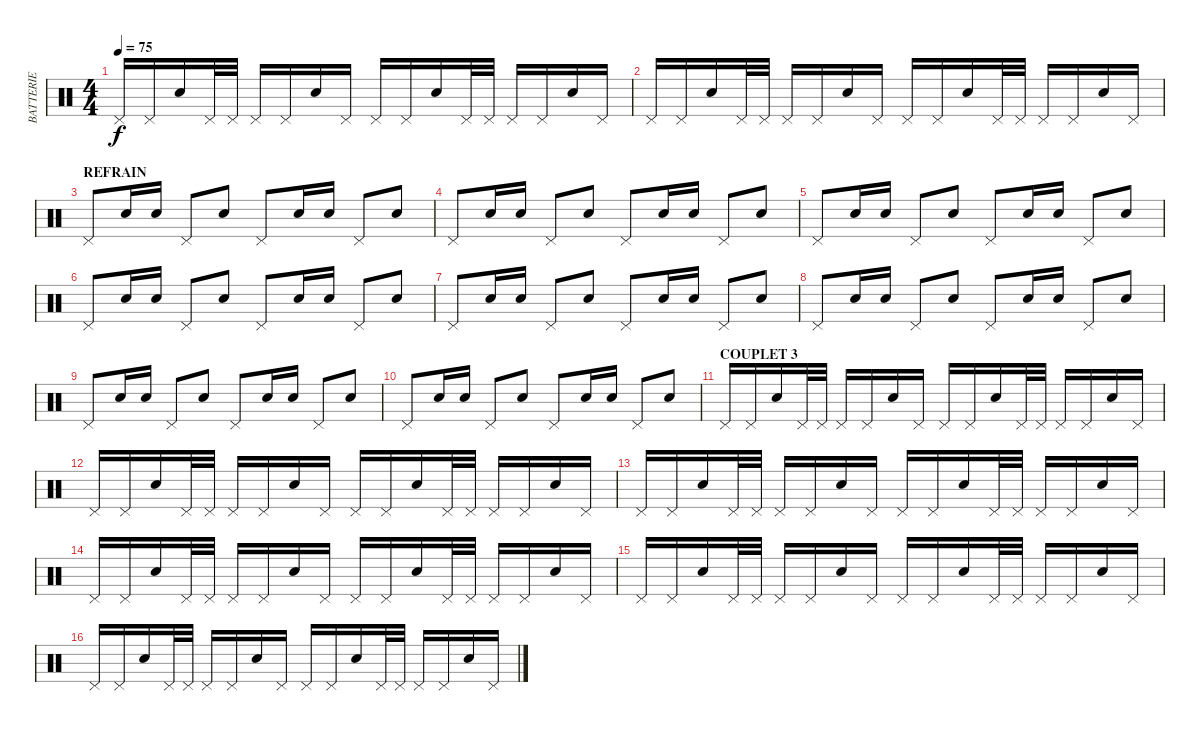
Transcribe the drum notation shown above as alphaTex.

\track ("BATTERIE" "BATTERIE") {instrument percussion}
\staff {score}
\articulation defaults
\ts (4 4)
\tempo 75
\clef neutral
\ks c "Pedal Hi-Hat (hit)".16{dy f} "Pedal Hi-Hat (hit)".16 "Electric Snare (hit)".16 "Pedal Hi-Hat (hit)".32 "Pedal Hi-Hat (hit)".32 "Pedal Hi-Hat (hit)".16 "Pedal Hi-Hat (hit)".16 "Electric Snare (hit)".16 "Pedal Hi-Hat (hit)".16 "Pedal Hi-Hat (hit)".16 "Pedal Hi-Hat (hit)".16 "Electric Snare (hit)".16 "Pedal Hi-Hat (hit)".32 "Pedal Hi-Hat (hit)".32 "Pedal Hi-Hat (hit)".16 "Pedal Hi-Hat (hit)".16 "Electric Snare (hit)".16 "Pedal Hi-Hat (hit)".16
|
"Pedal Hi-Hat (hit)".16 "Pedal Hi-Hat (hit)".16 "Electric Snare (hit)".16 "Pedal Hi-Hat (hit)".32 "Pedal Hi-Hat (hit)".32 "Pedal Hi-Hat (hit)".16 "Pedal Hi-Hat (hit)".16 "Electric Snare (hit)".16 "Pedal Hi-Hat (hit)".16 "Pedal Hi-Hat (hit)".16 "Pedal Hi-Hat (hit)".16 "Electric Snare (hit)".16 "Pedal Hi-Hat (hit)".32 "Pedal Hi-Hat (hit)".32 "Pedal Hi-Hat (hit)".16 "Pedal Hi-Hat (hit)".16 "Electric Snare (hit)".16 "Pedal Hi-Hat (hit)".16 |
\section ("" "REFRAIN")
"Pedal Hi-Hat (hit)".8 "Electric Snare (hit)".16 "Electric Snare (hit)".16 "Pedal Hi-Hat (hit)".8 "Electric Snare (hit)".8 "Pedal Hi-Hat (hit)".8 "Electric Snare (hit)".16 "Electric Snare (hit)".16 "Pedal Hi-Hat (hit)".8 "Electric Snare (hit)".8 |
"Pedal Hi-Hat (hit)".8 "Electric Snare (hit)".16 "Electric Snare (hit)".16 "Pedal Hi-Hat (hit)".8 "Electric Snare (hit)".8 "Pedal Hi-Hat (hit)".8 "Electric Snare (hit)".16 "Electric Snare (hit)".16 "Pedal Hi-Hat (hit)".8 "Electric Snare (hit)".8 |
"Pedal Hi-Hat (hit)".8 "Electric Snare (hit)".16 "Electric Snare (hit)".16 "Pedal Hi-Hat (hit)".8 "Electric Snare (hit)".8 "Pedal Hi-Hat (hit)".8 "Electric Snare (hit)".16 "Electric Snare (hit)".16 "Pedal Hi-Hat (hit)".8 "Electric Snare (hit)".8 |
"Pedal Hi-Hat (hit)".8 "Electric Snare (hit)".16 "Electric Snare (hit)".16 "Pedal Hi-Hat (hit)".8 "Electric Snare (hit)".8 "Pedal Hi-Hat (hit)".8 "Electric Snare (hit)".16 "Electric Snare (hit)".16 "Pedal Hi-Hat (hit)".8 "Electric Snare (hit)".8 |
"Pedal Hi-Hat (hit)".8 "Electric Snare (hit)".16 "Electric Snare (hit)".16 "Pedal Hi-Hat (hit)".8 "Electric Snare (hit)".8 "Pedal Hi-Hat (hit)".8 "Electric Snare (hit)".16 "Electric Snare (hit)".16 "Pedal Hi-Hat (hit)".8 "Electric Snare (hit)".8 |
"Pedal Hi-Hat (hit)".8 "Electric Snare (hit)".16 "Electric Snare (hit)".16 "Pedal Hi-Hat (hit)".8 "Electric Snare (hit)".8 "Pedal Hi-Hat (hit)".8 "Electric Snare (hit)".16 "Electric Snare (hit)".16 "Pedal Hi-Hat (hit)".8 "Electric Snare (hit)".8 |
"Pedal Hi-Hat (hit)".8 "Electric Snare (hit)".16 "Electric Snare (hit)".16 "Pedal Hi-Hat (hit)".8 "Electric Snare (hit)".8 "Pedal Hi-Hat (hit)".8 "Electric Snare (hit)".16 "Electric Snare (hit)".16 "Pedal Hi-Hat (hit)".8 "Electric Snare (hit)".8 |
"Pedal Hi-Hat (hit)".8 "Electric Snare (hit)".16 "Electric Snare (hit)".16 "Pedal Hi-Hat (hit)".8 "Electric Snare (hit)".8 "Pedal Hi-Hat (hit)".8 "Electric Snare (hit)".16 "Electric Snare (hit)".16 "Pedal Hi-Hat (hit)".8 "Electric Snare (hit)".8 |
\section ("" "COUPLET 3")
"Pedal Hi-Hat (hit)".16 "Pedal Hi-Hat (hit)".16 "Electric Snare (hit)".16 "Pedal Hi-Hat (hit)".32 "Pedal Hi-Hat (hit)".32 "Pedal Hi-Hat (hit)".16 "Pedal Hi-Hat (hit)".16 "Electric Snare (hit)".16 "Pedal Hi-Hat (hit)".16 "Pedal Hi-Hat (hit)".16 "Pedal Hi-Hat (hit)".16 "Electric Snare (hit)".16 "Pedal Hi-Hat (hit)".32 "Pedal Hi-Hat (hit)".32 "Pedal Hi-Hat (hit)".16 "Pedal Hi-Hat (hit)".16 "Electric Snare (hit)".16 "Pedal Hi-Hat (hit)".16 |
"Pedal Hi-Hat (hit)".16 "Pedal Hi-Hat (hit)".16 "Electric Snare (hit)".16 "Pedal Hi-Hat (hit)".32 "Pedal Hi-Hat (hit)".32 "Pedal Hi-Hat (hit)".16 "Pedal Hi-Hat (hit)".16 "Electric Snare (hit)".16 "Pedal Hi-Hat (hit)".16 "Pedal Hi-Hat (hit)".16 "Pedal Hi-Hat (hit)".16 "Electric Snare (hit)".16 "Pedal Hi-Hat (hit)".32 "Pedal Hi-Hat (hit)".32 "Pedal Hi-Hat (hit)".16 "Pedal Hi-Hat (hit)".16 "Electric Snare (hit)".16 "Pedal Hi-Hat (hit)".16 |
"Pedal Hi-Hat (hit)".16 "Pedal Hi-Hat (hit)".16 "Electric Snare (hit)".16 "Pedal Hi-Hat (hit)".32 "Pedal Hi-Hat (hit)".32 "Pedal Hi-Hat (hit)".16 "Pedal Hi-Hat (hit)".16 "Electric Snare (hit)".16 "Pedal Hi-Hat (hit)".16 "Pedal Hi-Hat (hit)".16 "Pedal Hi-Hat (hit)".16 "Electric Snare (hit)".16 "Pedal Hi-Hat (hit)".32 "Pedal Hi-Hat (hit)".32 "Pedal Hi-Hat (hit)".16 "Pedal Hi-Hat (hit)".16 "Electric Snare (hit)".16 "Pedal Hi-Hat (hit)".16 |
"Pedal Hi-Hat (hit)".16 "Pedal Hi-Hat (hit)".16 "Electric Snare (hit)".16 "Pedal Hi-Hat (hit)".32 "Pedal Hi-Hat (hit)".32 "Pedal Hi-Hat (hit)".16 "Pedal Hi-Hat (hit)".16 "Electric Snare (hit)".16 "Pedal Hi-Hat (hit)".16 "Pedal Hi-Hat (hit)".16 "Pedal Hi-Hat (hit)".16 "Electric Snare (hit)".16 "Pedal Hi-Hat (hit)".32 "Pedal Hi-Hat (hit)".32 "Pedal Hi-Hat (hit)".16 "Pedal Hi-Hat (hit)".16 "Electric Snare (hit)".16 "Pedal Hi-Hat (hit)".16 |
"Pedal Hi-Hat (hit)".16 "Pedal Hi-Hat (hit)".16 "Electric Snare (hit)".16 "Pedal Hi-Hat (hit)".32 "Pedal Hi-Hat (hit)".32 "Pedal Hi-Hat (hit)".16 "Pedal Hi-Hat (hit)".16 "Electric Snare (hit)".16 "Pedal Hi-Hat (hit)".16 "Pedal Hi-Hat (hit)".16 "Pedal Hi-Hat (hit)".16 "Electric Snare (hit)".16 "Pedal Hi-Hat (hit)".32 "Pedal Hi-Hat (hit)".32 "Pedal Hi-Hat (hit)".16 "Pedal Hi-Hat (hit)".16 "Electric Snare (hit)".16 "Pedal Hi-Hat (hit)".16 |
"Pedal Hi-Hat (hit)".16 "Pedal Hi-Hat (hit)".16 "Electric Snare (hit)".16 "Pedal Hi-Hat (hit)".32 "Pedal Hi-Hat (hit)".32 "Pedal Hi-Hat (hit)".16 "Pedal Hi-Hat (hit)".16 "Electric Snare (hit)".16 "Pedal Hi-Hat (hit)".16 "Pedal Hi-Hat (hit)".16 "Pedal Hi-Hat (hit)".16 "Electric Snare (hit)".16 "Pedal Hi-Hat (hit)".32 "Pedal Hi-Hat (hit)".32 "Pedal Hi-Hat (hit)".16 "Pedal Hi-Hat (hit)".16 "Electric Snare (hit)".16 "Pedal Hi-Hat (hit)".16
